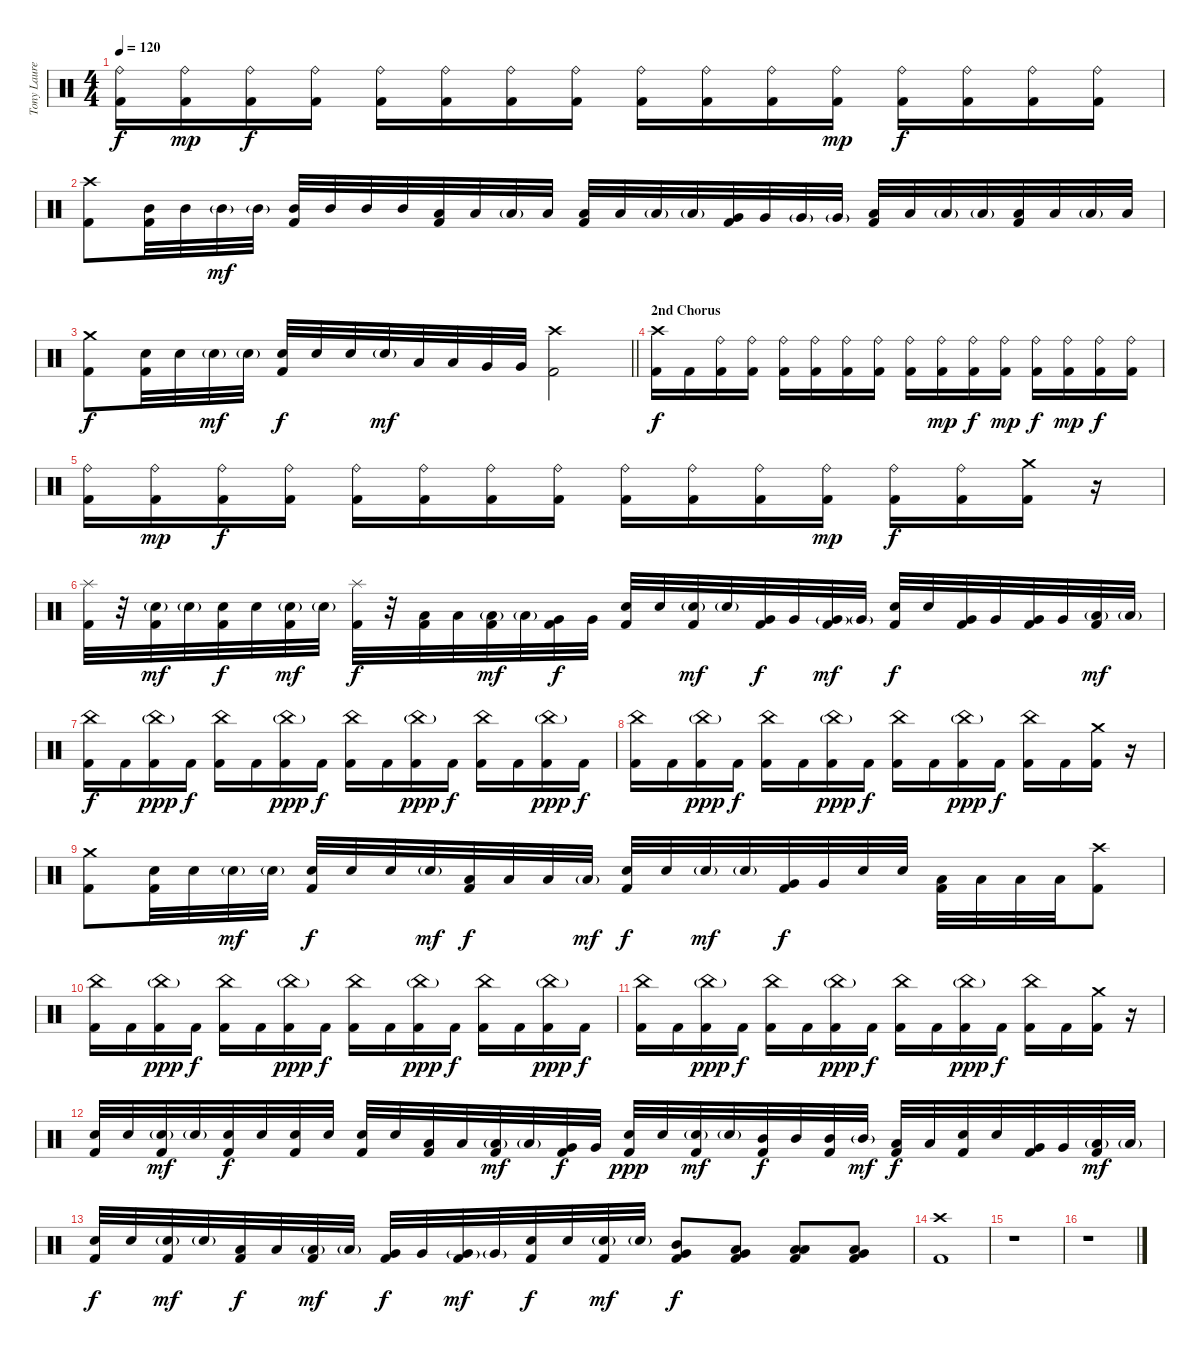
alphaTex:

\track ("Tony Laureano" "Tony Laure") {instrument percussion}
\staff {score}
\articulation defaults
\ts (4 4)
\tempo 120
\clef neutral
\ks c
("Ride (bell)" "Kick (hit) 2").16{dy f} ("Ride (bell)" "Kick (hit) 2").16{dy mp} ("Ride (bell)" "Kick (hit) 2").16{dy f} ("Ride (bell)" "Kick (hit) 2").16 ("Ride (bell)" "Kick (hit) 2").16 ("Ride (bell)" "Kick (hit) 2").16 ("Ride (bell)" "Kick (hit) 2").16 ("Ride (bell)" "Kick (hit) 2").16 ("Ride (bell)" "Kick (hit) 2").16 ("Ride (bell)" "Kick (hit) 2").16 ("Ride (bell)" "Kick (hit) 2").16 ("Ride (bell)" "Kick (hit) 2").16{dy mp} ("Ride (bell)" "Kick (hit) 2").16{dy f} ("Ride (bell)" "Kick (hit) 2").16 ("Ride (bell)" "Kick (hit) 2").16 ("Ride (bell)" "Kick (hit) 2").16 |
("Crash high (hit)" "Kick (hit) 2").8 ("Mid Tom (hit)" "Kick (hit) 2").32 "Mid Tom (hit)".32 "Mid Tom (hit)"{g}.32{dy mf} "Mid Tom (hit)"{g}.32 ("Mid Tom (hit)" "Kick (hit) 2").32 "Mid Tom (hit)".32 "Mid Tom (hit)".32 "Mid Tom (hit)".32 ("Low Tom (hit)" "Kick (hit) 2").32 "Low Tom (hit)".32 "Low Tom (hit)"{g}.32 "Low Tom (hit)".32 ("Low Tom (hit)" "Kick (hit) 2").32 "Low Tom (hit)".32 "Low Tom (hit)"{g}.32 "Low Tom (hit)"{g}.32 ("Very Low Tom (hit)" "Kick (hit) 2").32 "Very Low Tom (hit)".32 "Very Low Tom (hit)"{g}.32 "Very Low Tom (hit)"{g}.32 ("Low Floor Tom (hit)" "Kick (hit) 2").32 "Low Floor Tom (hit)".32 "Low Floor Tom (hit)"{g}.32 "Low Floor Tom (hit)"{g}.32 ("Low Floor Tom (hit)" "Kick (hit) 2").32 "Low Floor Tom (hit)".32 "Low Floor Tom (hit)"{g}.32 "Low Floor Tom (hit)".32 |
\barLineRight lightlight
("Crash medium (hit)" "Kick (hit) 2").8{dy f} ("Electric Snare (hit)" "Kick (hit) 2").32 "Electric Snare (hit)".32 "Electric Snare (hit)"{g}.32{dy mf} "Electric Snare (hit)"{g}.32 ("Electric Snare (hit)" "Kick (hit) 2").32{dy f} "Electric Snare (hit)".32 "Electric Snare (hit)".32 "Electric Snare (hit)"{g}.32{dy mf} "Low Tom (hit)".32 "Low Tom (hit)".32 "Very Low Tom (hit)".32 "Very Low Tom (hit)".32 ("Crash high (hit)" "Kick (hit) 2").2 |
\section ("" "2nd Chorus")
("Crash high (hit)" "Kick (hit) 2").16{dy f} "Kick (hit) 2".16 ("Ride (bell)" "Kick (hit) 2").16 ("Ride (bell)" "Kick (hit) 2").16 ("Ride (bell)" "Kick (hit) 2").16 ("Ride (bell)" "Kick (hit) 2").16 ("Ride (bell)" "Kick (hit) 2").16 ("Ride (bell)" "Kick (hit) 2").16 ("Ride (bell)" "Kick (hit) 2").16 ("Ride (bell)" "Kick (hit) 2").16{dy mp} ("Ride (bell)" "Kick (hit) 2").16{dy f} ("Ride (bell)" "Kick (hit) 2").16{dy mp} ("Ride (bell)" "Kick (hit) 2").16{dy f} ("Ride (bell)" "Kick (hit) 2").16{dy mp} ("Ride (bell)" "Kick (hit) 2").16{dy f} ("Ride (bell)" "Kick (hit) 2").16 |
("Ride (bell)" "Kick (hit) 2").16 ("Ride (bell)" "Kick (hit) 2").16{dy mp} ("Ride (bell)" "Kick (hit) 2").16{dy f} ("Ride (bell)" "Kick (hit) 2").16 ("Ride (bell)" "Kick (hit) 2").16 ("Ride (bell)" "Kick (hit) 2").16 ("Ride (bell)" "Kick (hit) 2").16 ("Ride (bell)" "Kick (hit) 2").16 ("Ride (bell)" "Kick (hit) 2").16 ("Ride (bell)" "Kick (hit) 2").16 ("Ride (bell)" "Kick (hit) 2").16 ("Ride (bell)" "Kick (hit) 2").16{dy mp} ("Ride (bell)" "Kick (hit) 2").16{dy f} ("Ride (bell)" "Kick (hit) 2").16 ("Crash medium (hit)" "Kick (hit) 2").16 r.16 |
("Splash (hit)" "Kick (hit) 2").32 r.32 ("Electric Snare (hit)"{g} "Kick (hit) 2").32{dy mf} "Electric Snare (hit)"{g}.32 ("Electric Snare (hit)" "Kick (hit) 2").32{dy f} "Electric Snare (hit)".32 ("Electric Snare (hit)"{g} "Kick (hit) 2").32{dy mf} "Electric Snare (hit)"{g}.32 ("Splash (hit)" "Kick (hit) 2").32{dy f} r.32 ("Low Tom (hit)" "Kick (hit) 2").32 "Low Tom (hit)".32 ("Low Tom (hit)"{g} "Kick (hit) 2").32{dy mf} "Low Tom (hit)"{g}.32 ("Very Low Tom (hit)" "Kick (hit) 2").32{dy f} "Very Low Tom (hit)".32 ("Electric Snare (hit)" "Kick (hit) 2").32 "Electric Snare (hit)".32 ("Electric Snare (hit)"{g} "Kick (hit) 2").32{dy mf} "Electric Snare (hit)"{g}.32 ("Very Low Tom (hit)" "Kick (hit) 2").32{dy f} "Very Low Tom (hit)".32 ("Very Low Tom (hit)"{g} "Kick (hit) 2").32{dy mf} "Very Low Tom (hit)"{g}.32 ("Electric Snare (hit)" "Kick (hit) 2").32{dy f} "Electric Snare (hit)".32 ("Very Low Tom (hit)" "Kick (hit) 2").32 "Very Low Tom (hit)".32 ("Very Low Tom (hit)" "Kick (hit) 2").32 "Very Low Tom (hit)".32 ("Low Floor Tom (hit)"{g} "Kick (hit) 2").32{dy mf} "Low Floor Tom (hit)"{g}.32 |
("China (hit)" "Kick (hit) 2").16{dy f} "Kick (hit) 2".16 ("China (hit)"{g} "Kick (hit) 2").16{dy ppp} "Kick (hit) 2".16{dy f} ("China (hit)" "Kick (hit) 2").16 "Kick (hit) 2".16 ("China (hit)"{g} "Kick (hit) 2").16{dy ppp} "Kick (hit) 2".16{dy f} ("China (hit)" "Kick (hit) 2").16 "Kick (hit) 2".16 ("China (hit)"{g} "Kick (hit) 2").16{dy ppp} "Kick (hit) 2".16{dy f} ("China (hit)" "Kick (hit) 2").16 "Kick (hit) 2".16 ("China (hit)"{g} "Kick (hit) 2").16{dy ppp} "Kick (hit) 2".16{dy f} |
("China (hit)" "Kick (hit) 2").16 "Kick (hit) 2".16 ("China (hit)"{g} "Kick (hit) 2").16{dy ppp} "Kick (hit) 2".16{dy f} ("China (hit)" "Kick (hit) 2").16 "Kick (hit) 2".16 ("China (hit)"{g} "Kick (hit) 2").16{dy ppp} "Kick (hit) 2".16{dy f} ("China (hit)" "Kick (hit) 2").16 "Kick (hit) 2".16 ("China (hit)"{g} "Kick (hit) 2").16{dy ppp} "Kick (hit) 2".16{dy f} ("China (hit)" "Kick (hit) 2").16 "Kick (hit) 2".16 ("Crash medium (hit)" "Kick (hit) 2").16 r.16 |
("Crash medium (hit)" "Kick (hit) 2").8 ("Electric Snare (hit)" "Kick (hit) 2").32 "Electric Snare (hit)".32 "Electric Snare (hit)"{g}.32{dy mf} "Electric Snare (hit)"{g}.32 ("Electric Snare (hit)" "Kick (hit) 2").32{dy f} "Electric Snare (hit)".32 "Electric Snare (hit)".32 "Electric Snare (hit)"{g}.32{dy mf} ("Low Tom (hit)" "Kick (hit) 2").32{dy f} "Low Tom (hit)".32 "Low Tom (hit)".32 "Low Tom (hit)"{g}.32{dy mf} ("Electric Snare (hit)" "Kick (hit) 2").32{dy f} "Electric Snare (hit)".32 "Electric Snare (hit)"{g}.32{dy mf} "Electric Snare (hit)"{g}.32 ("Very Low Tom (hit)" "Kick (hit) 2").32{dy f} "Very Low Tom (hit)".32 "Electric Snare (hit)".32 "Electric Snare (hit)".32 ("Low Floor Tom (hit)" "Kick (hit) 2").32 "Low Floor Tom (hit)".32 "Low Floor Tom (hit)".32 "Low Floor Tom (hit)".32 ("Crash high (hit)" "Kick (hit) 2").8 |
("China (hit)" "Kick (hit) 2").16 "Kick (hit) 2".16 ("China (hit)"{g} "Kick (hit) 2").16{dy ppp} "Kick (hit) 2".16{dy f} ("China (hit)" "Kick (hit) 2").16 "Kick (hit) 2".16 ("China (hit)"{g} "Kick (hit) 2").16{dy ppp} "Kick (hit) 2".16{dy f} ("China (hit)" "Kick (hit) 2").16 "Kick (hit) 2".16 ("China (hit)"{g} "Kick (hit) 2").16{dy ppp} "Kick (hit) 2".16{dy f} ("China (hit)" "Kick (hit) 2").16 "Kick (hit) 2".16 ("China (hit)"{g} "Kick (hit) 2").16{dy ppp} "Kick (hit) 2".16{dy f} |
("China (hit)" "Kick (hit) 2").16 "Kick (hit) 2".16 ("China (hit)"{g} "Kick (hit) 2").16{dy ppp} "Kick (hit) 2".16{dy f} ("China (hit)" "Kick (hit) 2").16 "Kick (hit) 2".16 ("China (hit)"{g} "Kick (hit) 2").16{dy ppp} "Kick (hit) 2".16{dy f} ("China (hit)" "Kick (hit) 2").16 "Kick (hit) 2".16 ("China (hit)"{g} "Kick (hit) 2").16{dy ppp} "Kick (hit) 2".16{dy f} ("China (hit)" "Kick (hit) 2").16 "Kick (hit) 2".16 ("Crash medium (hit)" "Kick (hit) 2").16 r.16 |
("Electric Snare (hit)" "Kick (hit) 2").32 "Electric Snare (hit)".32 ("Electric Snare (hit)"{g} "Kick (hit) 2").32{dy mf} "Electric Snare (hit)"{g}.32 ("Electric Snare (hit)" "Kick (hit) 2").32{dy f} "Electric Snare (hit)".32 ("Electric Snare (hit)" "Kick (hit) 2").32 "Electric Snare (hit)".32 ("Electric Snare (hit)" "Kick (hit) 2").32 "Electric Snare (hit)".32 ("Low Tom (hit)" "Kick (hit) 2").32 "Low Tom (hit)".32 ("Low Tom (hit)"{g} "Kick (hit) 2").32{dy mf} "Low Tom (hit)"{g}.32 ("Very Low Tom (hit)" "Kick (hit) 2").32{dy f} "Very Low Tom (hit)".32 ("Electric Snare (hit)" "Kick (hit) 2").32{dy ppp} "Electric Snare (hit)".32 ("Electric Snare (hit)"{g} "Kick (hit) 2").32{dy mf} "Electric Snare (hit)"{g}.32 ("Mid Tom (hit)" "Kick (hit) 2").32{dy f} "Mid Tom (hit)".32 ("Mid Tom (hit)" "Kick (hit) 2").32 "Mid Tom (hit)"{g}.32{dy mf} ("Low Tom (hit)" "Kick (hit) 2").32{dy f} "Low Tom (hit)".32 ("Electric Snare (hit)" "Kick (hit) 2").32 "Electric Snare (hit)".32 ("Very Low Tom (hit)" "Kick (hit) 2").32 "Very Low Tom (hit)".32 ("Low Floor Tom (hit)"{g} "Kick (hit) 2").32{dy mf} "Low Floor Tom (hit)"{g}.32 |
("Electric Snare (hit)" "Kick (hit) 2").32{dy f} "Electric Snare (hit)".32 ("Electric Snare (hit)"{g} "Kick (hit) 2").32{dy mf} "Electric Snare (hit)"{g}.32 ("Low Tom (hit)" "Kick (hit) 2").32{dy f} "Low Tom (hit)".32 ("Low Tom (hit)"{g} "Kick (hit) 2").32{dy mf} "Low Tom (hit)"{g}.32 ("Very Low Tom (hit)" "Kick (hit) 2").32{dy f} "Very Low Tom (hit)".32 ("Very Low Tom (hit)"{g} "Kick (hit) 2").32{dy mf} "Very Low Tom (hit)"{g}.32 ("Electric Snare (hit)" "Kick (hit) 2").32{dy f} "Electric Snare (hit)".32 ("Electric Snare (hit)"{g} "Kick (hit) 2").32{dy mf} "Electric Snare (hit)"{g}.32 ("Mid Tom (hit)" "Very Low Tom (hit)" "Kick (hit) 2").8{dy f} ("Low Tom (hit)" "Very Low Tom (hit)" "Kick (hit) 2").8 ("Low Tom (hit)" "Low Floor Tom (hit)" "Kick (hit) 2").8 ("Very Low Tom (hit)" "Low Floor Tom (hit)" "Kick (hit) 2").8 |
("Crash high (hit)" "Kick (hit) 2").1 |
r.1 |
r.1
